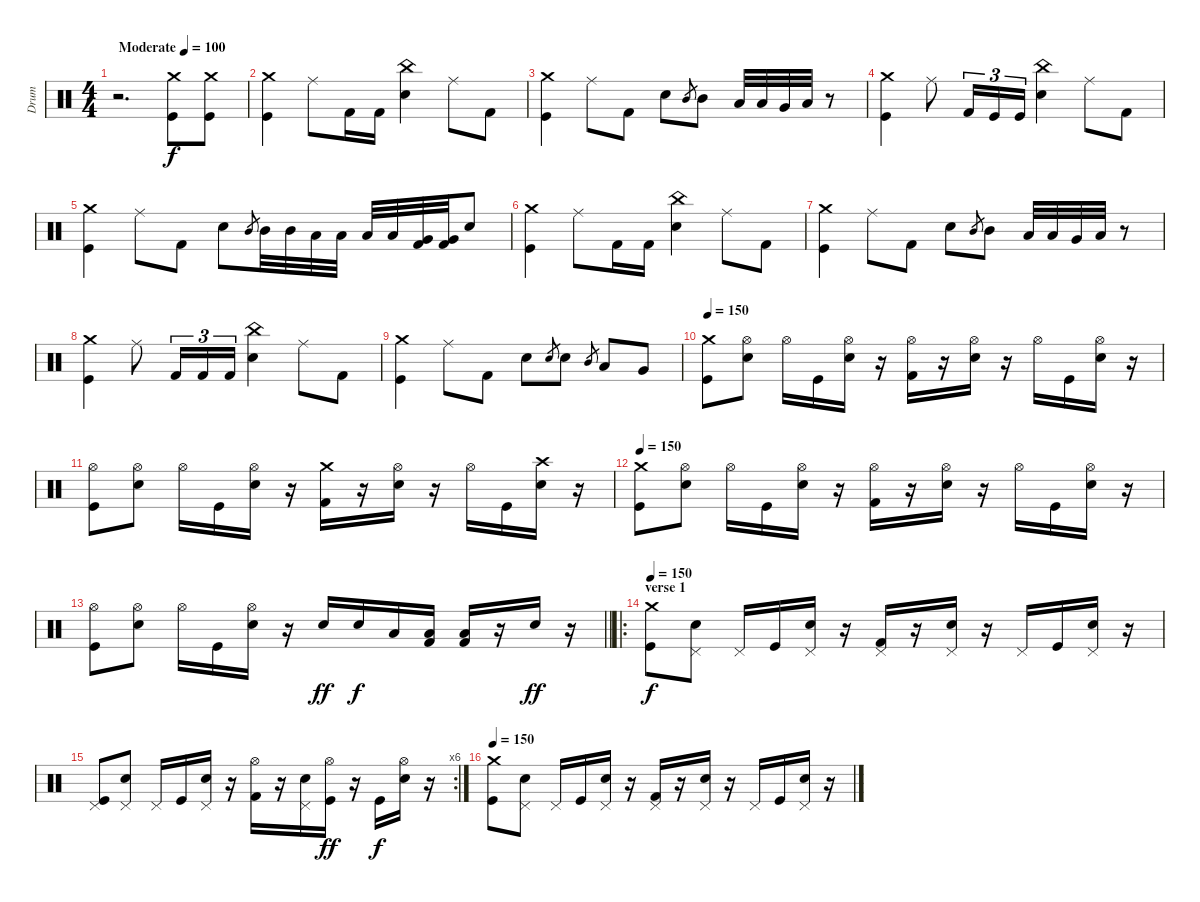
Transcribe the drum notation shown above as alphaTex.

\track ("Drum" "Drum") {instrument percussion}
\staff {score}
\articulation defaults
\ts (4 4)
\tempo (100 "Moderate")
\clef neutral
\ks c
r.2{d dy f} ("Crash medium (hit)" "Kick (hit)").8 ("Crash medium (hit)" "Kick (hit)").8 |
("Crash medium (hit)" "Kick (hit)").4 "Ride (middle)".8 "Kick (hit) 2".16 "Kick (hit) 2".16 ("China (hit)" "Snare (hit) 2").4 "Ride (middle)".8 "Kick (hit) 2".8 |
("Crash medium (hit)" "Kick (hit)").4 "Ride (middle)".8 "Kick (hit) 2".8 "Snare (hit) 2".8 "Mid Tom (hit)".8{gr} "Mid Tom (hit)".8 "Low Tom (hit)".32 "Low Tom (hit)".32 "Very Low Tom (hit)".32 "Low Floor Tom (hit)".32 r.8 |
("Crash medium (hit)" "Kick (hit)").4 "Ride (middle)".8 "Kick (hit) 2".16{tu (3 2)} "Kick (hit)".16{tu (3 2)} "Kick (hit)".16{tu (3 2)} ("China (hit)" "Snare (hit) 2").4 "Ride (middle)".8 "Kick (hit) 2".8 |
("Crash medium (hit)" "Kick (hit)").4 "Ride (middle)".8 "Kick (hit) 2".8 "Snare (hit) 2".8 "Mid Tom (hit)".8{gr} "Mid Tom (hit)".32 "Mid Tom (hit)".32 "Low Tom (hit)".32 "Low Tom (hit)".32 "Low Tom (hit)".32 "Low Tom (hit)".32 ("Very Low Tom (hit)" "Kick (hit) 2").32 ("Very Low Tom (hit)" "Kick (hit) 2").32 "Snare (hit) 2".8 |
("Crash medium (hit)" "Kick (hit)").4 "Ride (middle)".8 "Kick (hit) 2".16 "Kick (hit) 2".16 ("China (hit)" "Snare (hit) 2").4 "Ride (middle)".8 "Kick (hit) 2".8 |
("Crash medium (hit)" "Kick (hit)").4 "Ride (middle)".8 "Kick (hit) 2".8 "Snare (hit) 2".8 "Mid Tom (hit)".8{gr} "Mid Tom (hit)".8 "Low Tom (hit)".32 "Low Tom (hit)".32 "Very Low Tom (hit)".32 "Low Floor Tom (hit)".32 r.8 |
("Crash medium (hit)" "Kick (hit)").4 "Ride (middle)".8 "Kick (hit) 2".16{tu (3 2)} "Kick (hit) 2".16{tu (3 2)} "Kick (hit) 2".16{tu (3 2)} ("China (hit)" "Snare (hit) 2").4 "Ride (middle)".8 "Kick (hit) 2".8 |
("Crash medium (hit)" "Kick (hit)").4 "Ride (middle)".8 "Kick (hit) 2".8 "Snare (hit) 2".8 "Snare (hit) 2".8{gr} "Snare (hit) 2".8 "Mid Tom (hit)".8{gr} "Low Tom (hit)".8 "Very Low Tom (hit)".8 |
\tempo 150
("Crash medium (hit)" "Kick (hit)").8 ("Hi-Hat (open)" "Snare (hit) 2").8 "Hi-Hat (open)".16 "Kick (hit)".16 ("Hi-Hat (open)" "Snare (hit) 2").16 r.16 ("Hi-Hat (open)" "Kick (hit) 2").16 r.16 ("Hi-Hat (open)" "Snare (hit) 2").16 r.16 "Hi-Hat (open)".16 "Kick (hit)".16 ("Hi-Hat (open)" "Snare (hit) 2").16 r.16 |
("Hi-Hat (open)" "Kick (hit)").8 ("Hi-Hat (open)" "Snare (hit) 2").8 "Hi-Hat (open)".16 "Kick (hit)".16 ("Hi-Hat (open)" "Snare (hit) 2").16 r.16 ("Crash medium (hit)" "Kick (hit) 2").16 r.16 ("Hi-Hat (open)" "Snare (hit) 2").16 r.16 "Hi-Hat (open)".16 "Kick (hit)".16 ("Crash high (hit)" "Snare (hit) 2").16 r.16 |
\tempo 150
("Crash medium (hit)" "Kick (hit)").8 ("Hi-Hat (open)" "Snare (hit) 2").8 "Hi-Hat (open)".16 "Kick (hit)".16 ("Hi-Hat (open)" "Snare (hit) 2").16 r.16 ("Hi-Hat (open)" "Kick (hit) 2").16 r.16 ("Hi-Hat (open)" "Snare (hit) 2").16 r.16 "Hi-Hat (open)".16 "Kick (hit)".16 ("Hi-Hat (open)" "Snare (hit) 2").16 r.16 |
\barLineRight lightlight
("Hi-Hat (open)" "Kick (hit)").8 ("Hi-Hat (open)" "Snare (hit) 2").8 "Hi-Hat (open)".16 "Kick (hit)".16 ("Hi-Hat (open)" "Snare (hit) 2").16 r.16 "Snare (hit) 2".16{dy ff} "Snare (hit) 2".16{dy f} "Low Tom (hit)".16 ("Low Tom (hit)" "Kick (hit) 2").16 ("Low Tom (hit)" "Kick (hit) 2").16 r.16 "Snare (hit) 2".16{dy ff} r.16 |
\ro
\section ("" "verse 1")
\tempo 150
("Crash medium (hit)" "Kick (hit)").8{dy f} ("Pedal Hi-Hat (hit)" "Snare (hit) 2").8 "Pedal Hi-Hat (hit)".16 "Kick (hit)".16 ("Pedal Hi-Hat (hit)" "Snare (hit) 2").16 r.16 ("Pedal Hi-Hat (hit)" "Kick (hit) 2").16 r.16 ("Pedal Hi-Hat (hit)" "Snare (hit) 2").16 r.16 "Pedal Hi-Hat (hit)".16 "Kick (hit)".16 ("Pedal Hi-Hat (hit)" "Snare (hit) 2").16 r.16 |
\rc 6
("Pedal Hi-Hat (hit)" "Kick (hit)").8 ("Pedal Hi-Hat (hit)" "Snare (hit) 2").8 "Pedal Hi-Hat (hit)".16 "Kick (hit)".16 ("Pedal Hi-Hat (hit)" "Snare (hit) 2").16 r.16 ("Hi-Hat (open)" "Kick (hit) 2").16 r.16 ("Pedal Hi-Hat (hit)" "Snare (hit) 2").16 ("Hi-Hat (open)" "Kick (hit)").16{dy ff} r.16 "Kick (hit)".16{dy f} ("Hi-Hat (open)" "Snare (hit) 2").16 r.16 |
\tempo 150
("Crash medium (hit)" "Kick (hit)").8 ("Pedal Hi-Hat (hit)" "Snare (hit) 2").8 "Pedal Hi-Hat (hit)".16 "Kick (hit)".16 ("Pedal Hi-Hat (hit)" "Snare (hit) 2").16 r.16 ("Pedal Hi-Hat (hit)" "Kick (hit) 2").16 r.16 ("Pedal Hi-Hat (hit)" "Snare (hit) 2").16 r.16 "Pedal Hi-Hat (hit)".16 "Kick (hit)".16 ("Pedal Hi-Hat (hit)" "Snare (hit) 2").16 r.16
